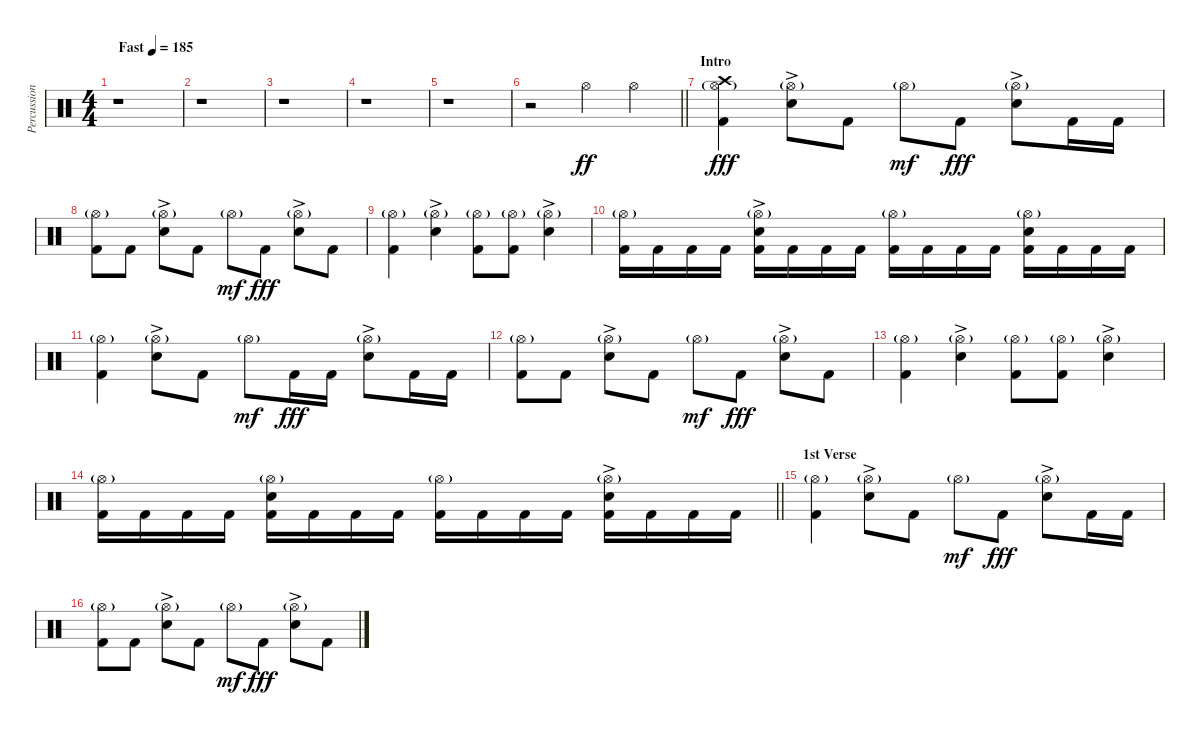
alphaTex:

\track ("Percussion , Drums - Travis Smith" "Percussion") {instrument percussion}
\staff {score}
\articulation defaults
\ts (4 4)
\tempo (185 "Fast")
\clef neutral
\ks c
r.1{dy ff} |
r.1 |
r.1 |
r.1 |
r.1 |
\barLineRight lightlight
r.2 "Hi-Hat (open)".4 "Hi-Hat (open)".4 |
\section ("" "Intro")
("Hi-Hat (open)"{g} "Crash high (hit)" "Kick (hit) 2").4{dy fff} ("Hi-Hat (open)"{g} "Electric Snare (hit)"{ac}).8 "Kick (hit) 2".8 "Hi-Hat (open)"{g}.8{dy mf} "Kick (hit) 2".8{dy fff} ("Hi-Hat (open)"{g} "Electric Snare (hit)"{ac}).8 "Kick (hit) 2".16 "Kick (hit) 2".16 |
("Hi-Hat (open)"{g} "Kick (hit) 2").8 "Kick (hit) 2".8 ("Hi-Hat (open)"{g} "Electric Snare (hit)"{ac}).8 "Kick (hit) 2".8 "Hi-Hat (open)"{g}.8{dy mf} "Kick (hit) 2".8{dy fff} ("Hi-Hat (open)"{g} "Electric Snare (hit)"{ac}).8 "Kick (hit) 2".8 |
("Hi-Hat (open)"{g} "Kick (hit) 2").4 ("Hi-Hat (open)"{g} "Electric Snare (hit)"{ac}).4 ("Hi-Hat (open)"{g} "Kick (hit) 2").8 ("Hi-Hat (open)"{g} "Kick (hit) 2").8 ("Hi-Hat (open)"{g} "Electric Snare (hit)"{ac}).4 |
("Hi-Hat (open)"{g} "Kick (hit) 2").16 "Kick (hit) 2".16 "Kick (hit) 2".16 "Kick (hit) 2".16 ("Hi-Hat (open)"{g} "Electric Snare (hit)"{ac} "Kick (hit) 2").16 "Kick (hit) 2".16 "Kick (hit) 2".16 "Kick (hit) 2".16 ("Hi-Hat (open)"{g} "Kick (hit) 2").16 "Kick (hit) 2".16 "Kick (hit) 2".16 "Kick (hit) 2".16 ("Hi-Hat (open)"{g} "Electric Snare (hit)" "Kick (hit) 2").16 "Kick (hit) 2".16 "Kick (hit) 2".16 "Kick (hit) 2".16 |
("Hi-Hat (open)"{g} "Kick (hit) 2").4 ("Hi-Hat (open)"{g} "Electric Snare (hit)"{ac}).8 "Kick (hit) 2".8 "Hi-Hat (open)"{g}.8{dy mf} "Kick (hit) 2".16{dy fff} "Kick (hit) 2".16 ("Hi-Hat (open)"{g} "Electric Snare (hit)"{ac}).8 "Kick (hit) 2".16 "Kick (hit) 2".16 |
("Hi-Hat (open)"{g} "Kick (hit) 2").8 "Kick (hit) 2".8 ("Hi-Hat (open)"{g} "Electric Snare (hit)"{ac}).8 "Kick (hit) 2".8 "Hi-Hat (open)"{g}.8{dy mf} "Kick (hit) 2".8{dy fff} ("Hi-Hat (open)"{g} "Electric Snare (hit)"{ac}).8 "Kick (hit) 2".8 |
("Hi-Hat (open)"{g} "Kick (hit) 2").4 ("Hi-Hat (open)"{g} "Electric Snare (hit)"{ac}).4 ("Hi-Hat (open)"{g} "Kick (hit) 2").8 ("Hi-Hat (open)"{g} "Kick (hit) 2").8 ("Hi-Hat (open)"{g} "Electric Snare (hit)"{ac}).4 |
\barLineRight lightlight
("Hi-Hat (open)"{g} "Kick (hit) 2").16 "Kick (hit) 2".16 "Kick (hit) 2".16 "Kick (hit) 2".16 ("Hi-Hat (open)"{g} "Electric Snare (hit)" "Kick (hit) 2").16 "Kick (hit) 2".16 "Kick (hit) 2".16 "Kick (hit) 2".16 ("Hi-Hat (open)"{g} "Kick (hit) 2").16 "Kick (hit) 2".16 "Kick (hit) 2".16 "Kick (hit) 2".16 ("Hi-Hat (open)"{g} "Electric Snare (hit)"{ac} "Kick (hit) 2").16 "Kick (hit) 2".16 "Kick (hit) 2".16 "Kick (hit) 2".16 |
\section ("" "1st Verse")
("Hi-Hat (open)"{g} "Kick (hit) 2").4 ("Hi-Hat (open)"{g} "Electric Snare (hit)"{ac}).8 "Kick (hit) 2".8 "Hi-Hat (open)"{g}.8{dy mf} "Kick (hit) 2".8{dy fff} ("Hi-Hat (open)"{g} "Electric Snare (hit)"{ac}).8 "Kick (hit) 2".16 "Kick (hit) 2".16 |
("Hi-Hat (open)"{g} "Kick (hit) 2").8 "Kick (hit) 2".8 ("Hi-Hat (open)"{g} "Electric Snare (hit)"{ac}).8 "Kick (hit) 2".8 "Hi-Hat (open)"{g}.8{dy mf} "Kick (hit) 2".8{dy fff} ("Hi-Hat (open)"{g} "Electric Snare (hit)"{ac}).8 "Kick (hit) 2".8
